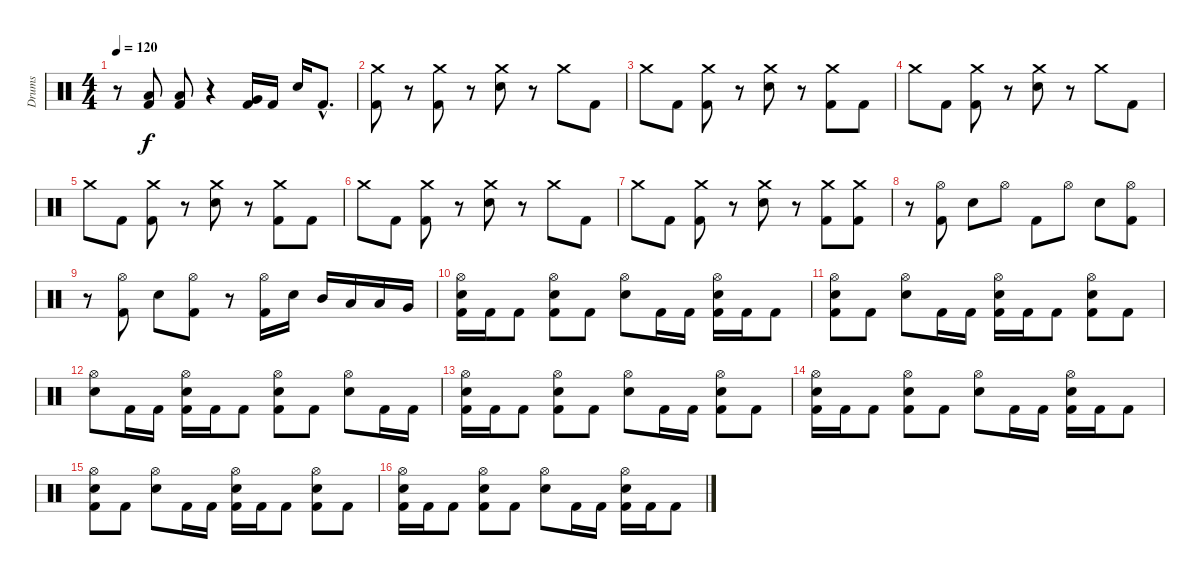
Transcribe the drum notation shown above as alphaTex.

\track ("Drums" "Drums") {instrument percussion}
\staff {score}
\articulation defaults
\ts (4 4)
\tempo 120
\clef neutral
\ks c
r.8{dy f} ("Low Floor Tom (hit)" "Kick (hit) 2").8 ("Low Floor Tom (hit)" "Kick (hit) 2").8 r.4 ("Very Low Tom (hit)" "Kick (hit) 2").16 "Kick (hit) 2".16 "Electric Snare (hit)".16 "Kick (hit) 2"{hac}.8{d} |
("Crash medium (hit)" "Kick (hit) 2").8 r.8 ("Crash medium (hit)" "Kick (hit) 2").8 r.8 ("Crash medium (hit)" "Electric Snare (hit)").8 r.8 "Crash medium (hit)".8 "Kick (hit) 2".8 |
"Crash medium (hit)".8 "Kick (hit) 2".8 ("Crash medium (hit)" "Kick (hit) 2").8 r.8 ("Crash medium (hit)" "Electric Snare (hit)").8 r.8 ("Crash medium (hit)" "Kick (hit) 2").8 "Kick (hit) 2".8 |
"Crash medium (hit)".8 "Kick (hit) 2".8 ("Crash medium (hit)" "Kick (hit) 2").8 r.8 ("Crash medium (hit)" "Electric Snare (hit)").8 r.8 "Crash medium (hit)".8 "Kick (hit) 2".8 |
"Crash medium (hit)".8 "Kick (hit) 2".8 ("Crash medium (hit)" "Kick (hit) 2").8 r.8 ("Crash medium (hit)" "Electric Snare (hit)").8 r.8 ("Crash medium (hit)" "Kick (hit) 2").8 "Kick (hit) 2".8 |
"Crash medium (hit)".8 "Kick (hit) 2".8 ("Crash medium (hit)" "Kick (hit) 2").8 r.8 ("Crash medium (hit)" "Electric Snare (hit)").8 r.8 "Crash medium (hit)".8 "Kick (hit) 2".8 |
"Crash medium (hit)".8 "Kick (hit) 2".8 ("Crash medium (hit)" "Kick (hit) 2").8 r.8 ("Crash medium (hit)" "Electric Snare (hit)").8 r.8 ("Crash medium (hit)" "Kick (hit) 2").8 ("Crash medium (hit)" "Kick (hit) 2").8 |
r.8 ("Hi-Hat (open)" "Kick (hit) 2").8 "Electric Snare (hit)".8 "Hi-Hat (open)".8 "Kick (hit) 2".8 "Hi-Hat (open)".8 "Electric Snare (hit)".8 ("Hi-Hat (open)" "Kick (hit) 2").8 |
r.8 ("Hi-Hat (open)" "Kick (hit) 2").8 "Electric Snare (hit)".8 ("Hi-Hat (open)" "Kick (hit) 2").8 r.8 ("Hi-Hat (open)" "Kick (hit) 2").16 "Electric Snare (hit)".16 "Mid Tom (hit)".16 "Low Tom (hit)".16 "Low Tom (hit)".16 "Very Low Tom (hit)".16 |
("Hi-Hat (open)" "Electric Snare (hit)" "Kick (hit) 2").16 "Kick (hit) 2".16 "Kick (hit) 2".8 ("Hi-Hat (open)" "Electric Snare (hit)" "Kick (hit) 2").8 "Kick (hit) 2".8 ("Hi-Hat (open)" "Electric Snare (hit)").8 "Kick (hit) 2".16 "Kick (hit) 2".16 ("Hi-Hat (open)" "Electric Snare (hit)" "Kick (hit) 2").16 "Kick (hit) 2".16 "Kick (hit) 2".8 |
("Hi-Hat (open)" "Electric Snare (hit)" "Kick (hit) 2").8 "Kick (hit) 2".8 ("Hi-Hat (open)" "Electric Snare (hit)").8 "Kick (hit) 2".16 "Kick (hit) 2".16 ("Hi-Hat (open)" "Electric Snare (hit)" "Kick (hit) 2").16 "Kick (hit) 2".16 "Kick (hit) 2".8 ("Hi-Hat (open)" "Electric Snare (hit)" "Kick (hit) 2").8 "Kick (hit) 2".8 |
("Hi-Hat (open)" "Electric Snare (hit)").8 "Kick (hit) 2".16 "Kick (hit) 2".16 ("Hi-Hat (open)" "Electric Snare (hit)" "Kick (hit) 2").16 "Kick (hit) 2".16 "Kick (hit) 2".8 ("Hi-Hat (open)" "Electric Snare (hit)" "Kick (hit) 2").8 "Kick (hit) 2".8 ("Hi-Hat (open)" "Electric Snare (hit)").8 "Kick (hit) 2".16 "Kick (hit) 2".16 |
("Hi-Hat (open)" "Electric Snare (hit)" "Kick (hit) 2").16 "Kick (hit) 2".16 "Kick (hit) 2".8 ("Hi-Hat (open)" "Electric Snare (hit)" "Kick (hit) 2").8 "Kick (hit) 2".8 ("Hi-Hat (open)" "Electric Snare (hit)").8 "Kick (hit) 2".16 "Kick (hit) 2".16 ("Hi-Hat (open)" "Electric Snare (hit)" "Kick (hit) 2").8 "Kick (hit) 2".8 |
("Hi-Hat (open)" "Electric Snare (hit)" "Kick (hit) 2").16 "Kick (hit) 2".16 "Kick (hit) 2".8 ("Hi-Hat (open)" "Electric Snare (hit)" "Kick (hit) 2").8 "Kick (hit) 2".8 ("Hi-Hat (open)" "Electric Snare (hit)").8 "Kick (hit) 2".16 "Kick (hit) 2".16 ("Hi-Hat (open)" "Electric Snare (hit)" "Kick (hit) 2").16 "Kick (hit) 2".16 "Kick (hit) 2".8 |
("Hi-Hat (open)" "Electric Snare (hit)" "Kick (hit) 2").8 "Kick (hit) 2".8 ("Hi-Hat (open)" "Electric Snare (hit)").8 "Kick (hit) 2".16 "Kick (hit) 2".16 ("Hi-Hat (open)" "Electric Snare (hit)" "Kick (hit) 2").16 "Kick (hit) 2".16 "Kick (hit) 2".8 ("Hi-Hat (open)" "Electric Snare (hit)" "Kick (hit) 2").8 "Kick (hit) 2".8 |
("Hi-Hat (open)" "Electric Snare (hit)" "Kick (hit) 2").16 "Kick (hit) 2".16 "Kick (hit) 2".8 ("Hi-Hat (open)" "Electric Snare (hit)" "Kick (hit) 2").8 "Kick (hit) 2".8 ("Hi-Hat (open)" "Electric Snare (hit)").8 "Kick (hit) 2".16 "Kick (hit) 2".16 ("Hi-Hat (open)" "Electric Snare (hit)" "Kick (hit) 2").16 "Kick (hit) 2".16 "Kick (hit) 2".8
